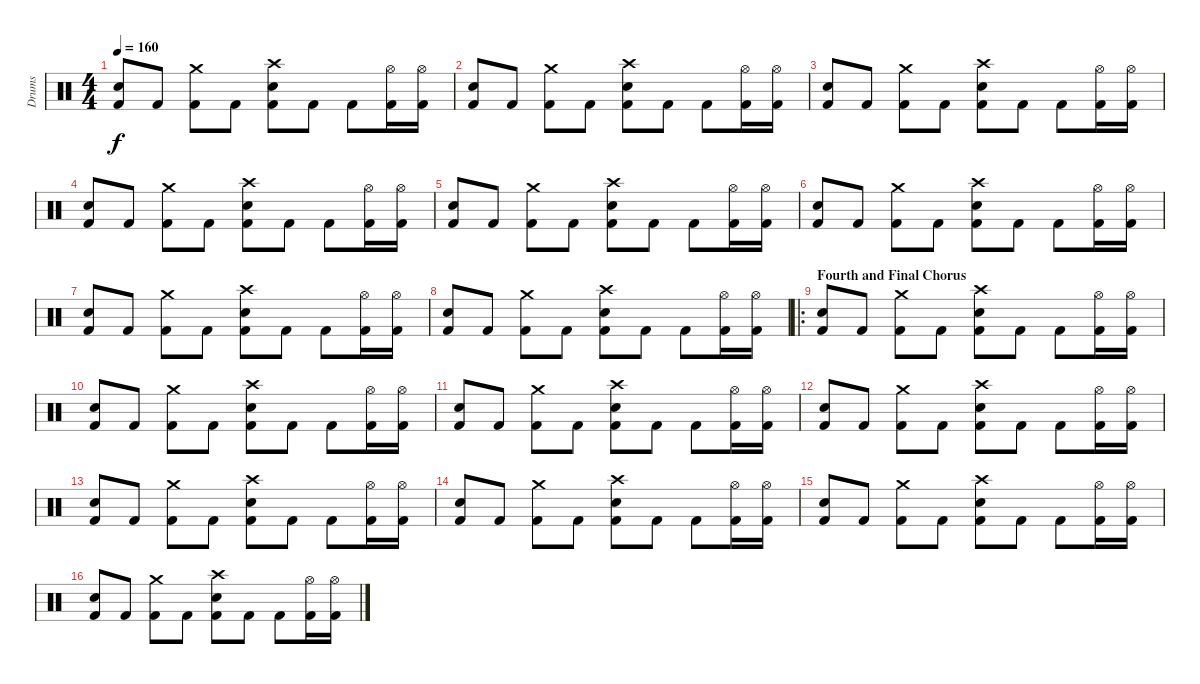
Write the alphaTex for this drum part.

\track ("Drums" "Drums") {instrument percussion}
\staff {score}
\articulation defaults
\ts (4 4)
\tempo 160
\clef neutral
\ks c
("Kick (hit) 2" "Electric Snare (hit)").8{dy f} "Kick (hit) 2".8 ("Kick (hit) 2" "Crash medium (hit)").8 "Kick (hit) 2".8 ("Kick (hit) 2" "Crash high (hit)" "Electric Snare (hit)").8 "Kick (hit) 2".8 "Kick (hit) 2".8 ("Kick (hit) 2" "Hi-Hat (open)").16 ("Kick (hit) 2" "Hi-Hat (open)").16 |
("Kick (hit) 2" "Electric Snare (hit)").8 "Kick (hit) 2".8 ("Kick (hit) 2" "Crash medium (hit)").8 "Kick (hit) 2".8 ("Kick (hit) 2" "Crash high (hit)" "Electric Snare (hit)").8 "Kick (hit) 2".8 "Kick (hit) 2".8 ("Kick (hit) 2" "Hi-Hat (open)").16 ("Kick (hit) 2" "Hi-Hat (open)").16 |
("Kick (hit) 2" "Electric Snare (hit)").8 "Kick (hit) 2".8 ("Kick (hit) 2" "Crash medium (hit)").8 "Kick (hit) 2".8 ("Kick (hit) 2" "Crash high (hit)" "Electric Snare (hit)").8 "Kick (hit) 2".8 "Kick (hit) 2".8 ("Kick (hit) 2" "Hi-Hat (open)").16 ("Kick (hit) 2" "Hi-Hat (open)").16 |
("Kick (hit) 2" "Electric Snare (hit)").8 "Kick (hit) 2".8 ("Kick (hit) 2" "Crash medium (hit)").8 "Kick (hit) 2".8 ("Kick (hit) 2" "Crash high (hit)" "Electric Snare (hit)").8 "Kick (hit) 2".8 "Kick (hit) 2".8 ("Kick (hit) 2" "Hi-Hat (open)").16 ("Kick (hit) 2" "Hi-Hat (open)").16 |
("Kick (hit) 2" "Electric Snare (hit)").8 "Kick (hit) 2".8 ("Kick (hit) 2" "Crash medium (hit)").8 "Kick (hit) 2".8 ("Kick (hit) 2" "Crash high (hit)" "Electric Snare (hit)").8 "Kick (hit) 2".8 "Kick (hit) 2".8 ("Kick (hit) 2" "Hi-Hat (open)").16 ("Kick (hit) 2" "Hi-Hat (open)").16 |
("Kick (hit) 2" "Electric Snare (hit)").8 "Kick (hit) 2".8 ("Kick (hit) 2" "Crash medium (hit)").8 "Kick (hit) 2".8 ("Kick (hit) 2" "Crash high (hit)" "Electric Snare (hit)").8 "Kick (hit) 2".8 "Kick (hit) 2".8 ("Kick (hit) 2" "Hi-Hat (open)").16 ("Kick (hit) 2" "Hi-Hat (open)").16 |
("Kick (hit) 2" "Electric Snare (hit)").8 "Kick (hit) 2".8 ("Kick (hit) 2" "Crash medium (hit)").8 "Kick (hit) 2".8 ("Kick (hit) 2" "Crash high (hit)" "Electric Snare (hit)").8 "Kick (hit) 2".8 "Kick (hit) 2".8 ("Kick (hit) 2" "Hi-Hat (open)").16 ("Kick (hit) 2" "Hi-Hat (open)").16 |
("Kick (hit) 2" "Electric Snare (hit)").8 "Kick (hit) 2".8 ("Kick (hit) 2" "Crash medium (hit)").8 "Kick (hit) 2".8 ("Kick (hit) 2" "Crash high (hit)" "Electric Snare (hit)").8 "Kick (hit) 2".8 "Kick (hit) 2".8 ("Kick (hit) 2" "Hi-Hat (open)").16 ("Kick (hit) 2" "Hi-Hat (open)").16 |
\ro
\section ("" "Fourth and Final Chorus")
("Kick (hit) 2" "Electric Snare (hit)").8 "Kick (hit) 2".8 ("Kick (hit) 2" "Crash medium (hit)").8 "Kick (hit) 2".8 ("Kick (hit) 2" "Crash high (hit)" "Electric Snare (hit)").8 "Kick (hit) 2".8 "Kick (hit) 2".8 ("Kick (hit) 2" "Hi-Hat (open)").16 ("Kick (hit) 2" "Hi-Hat (open)").16 |
("Kick (hit) 2" "Electric Snare (hit)").8 "Kick (hit) 2".8 ("Kick (hit) 2" "Crash medium (hit)").8 "Kick (hit) 2".8 ("Kick (hit) 2" "Crash high (hit)" "Electric Snare (hit)").8 "Kick (hit) 2".8 "Kick (hit) 2".8 ("Kick (hit) 2" "Hi-Hat (open)").16 ("Kick (hit) 2" "Hi-Hat (open)").16 |
("Kick (hit) 2" "Electric Snare (hit)").8 "Kick (hit) 2".8 ("Kick (hit) 2" "Crash medium (hit)").8 "Kick (hit) 2".8 ("Kick (hit) 2" "Crash high (hit)" "Electric Snare (hit)").8 "Kick (hit) 2".8 "Kick (hit) 2".8 ("Kick (hit) 2" "Hi-Hat (open)").16 ("Kick (hit) 2" "Hi-Hat (open)").16 |
("Kick (hit) 2" "Electric Snare (hit)").8 "Kick (hit) 2".8 ("Kick (hit) 2" "Crash medium (hit)").8 "Kick (hit) 2".8 ("Kick (hit) 2" "Crash high (hit)" "Electric Snare (hit)").8 "Kick (hit) 2".8 "Kick (hit) 2".8 ("Kick (hit) 2" "Hi-Hat (open)").16 ("Kick (hit) 2" "Hi-Hat (open)").16 |
("Kick (hit) 2" "Electric Snare (hit)").8 "Kick (hit) 2".8 ("Kick (hit) 2" "Crash medium (hit)").8 "Kick (hit) 2".8 ("Kick (hit) 2" "Crash high (hit)" "Electric Snare (hit)").8 "Kick (hit) 2".8 "Kick (hit) 2".8 ("Kick (hit) 2" "Hi-Hat (open)").16 ("Kick (hit) 2" "Hi-Hat (open)").16 |
("Kick (hit) 2" "Electric Snare (hit)").8 "Kick (hit) 2".8 ("Kick (hit) 2" "Crash medium (hit)").8 "Kick (hit) 2".8 ("Kick (hit) 2" "Crash high (hit)" "Electric Snare (hit)").8 "Kick (hit) 2".8 "Kick (hit) 2".8 ("Kick (hit) 2" "Hi-Hat (open)").16 ("Kick (hit) 2" "Hi-Hat (open)").16 |
("Kick (hit) 2" "Electric Snare (hit)").8 "Kick (hit) 2".8 ("Kick (hit) 2" "Crash medium (hit)").8 "Kick (hit) 2".8 ("Kick (hit) 2" "Crash high (hit)" "Electric Snare (hit)").8 "Kick (hit) 2".8 "Kick (hit) 2".8 ("Kick (hit) 2" "Hi-Hat (open)").16 ("Kick (hit) 2" "Hi-Hat (open)").16 |
("Kick (hit) 2" "Electric Snare (hit)").8 "Kick (hit) 2".8 ("Kick (hit) 2" "Crash medium (hit)").8 "Kick (hit) 2".8 ("Kick (hit) 2" "Crash high (hit)" "Electric Snare (hit)").8 "Kick (hit) 2".8 "Kick (hit) 2".8 ("Kick (hit) 2" "Hi-Hat (open)").16 ("Kick (hit) 2" "Hi-Hat (open)").16
